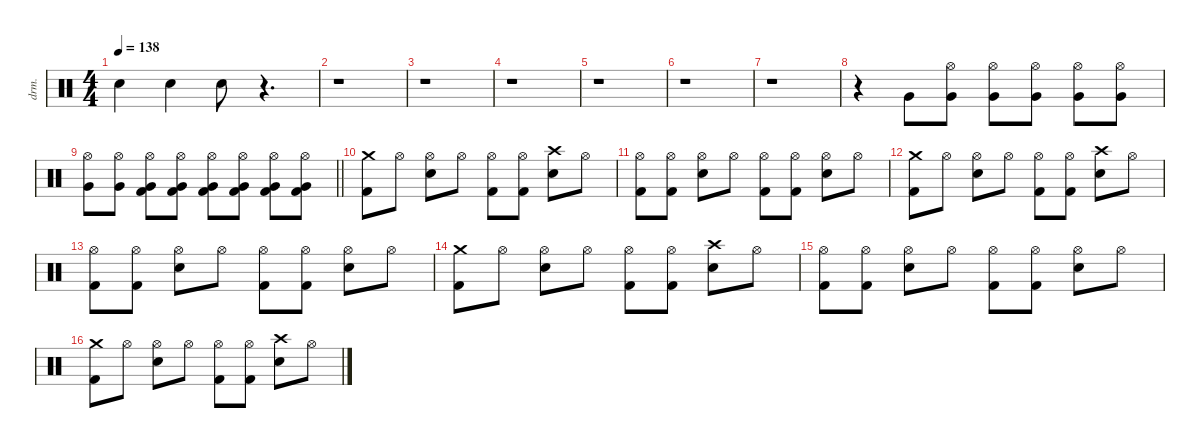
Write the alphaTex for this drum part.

\defaultSystemsLayout 4
\hideDynamics
\bracketExtendMode nobrackets
\otherSystemsTrackNameOrientation horizontal
\track ("Alex Van Halen " "drm.") {instrument percussion}
\staff {score}
\articulation defaults
\ts (4 4)
\tempo 138
\clef neutral
\ks c "Hand Clap (hit)".4{dy f beam Down} "Hand Clap (hit)".4{beam Down} "Hand Clap (hit)".8{beam Down}
r.4{d beam Down} |
r.1{beam Down} |
r.1{beam Down} |
r.1{beam Down} |
r.1{beam Down} |
r.1{beam Down} |
r.1{beam Down} |
r.4{beam Down} "Very Low Tom (hit)".8{beam Down} ("Hi-Hat (open)" "Very Low Tom (hit)").8{beam Down} ("Hi-Hat (open)" "Very Low Tom (hit)").8{beam Down} ("Hi-Hat (open)" "Very Low Tom (hit)").8{beam Down} ("Hi-Hat (open)" "Very Low Tom (hit)").8{beam Down} ("Very Low Tom (hit)" "Hi-Hat (open)").8{beam Down} |
\barLineRight lightlight
("Hi-Hat (open)" "Very Low Tom (hit)").8{beam Down} ("Hi-Hat (open)" "Very Low Tom (hit)").8{beam Down} ("Kick (hit) 2" "Hi-Hat (open)" "Very Low Tom (hit)").8{beam Down} ("Kick (hit) 2" "Hi-Hat (open)" "Very Low Tom (hit)").8{beam Down} ("Kick (hit) 2" "Hi-Hat (open)" "Very Low Tom (hit)").8{beam Down} ("Kick (hit) 2" "Hi-Hat (open)" "Very Low Tom (hit)").8{beam Down} ("Very Low Tom (hit)" "Hi-Hat (open)" "Kick (hit) 2").8{beam Down} ("Very Low Tom (hit)" "Hi-Hat (open)" "Kick (hit) 2").8{beam Down} |
("Crash medium (hit)" "Kick (hit) 2").8{beam Down} "Hi-Hat (open)".8{beam Down} ("Hi-Hat (open)" "Snare (hit) 2").8{beam Down} "Hi-Hat (open)".8{beam Down} ("Hi-Hat (open)" "Kick (hit) 2").8{beam Down} ("Hi-Hat (open)" "Kick (hit) 2").8{beam Down} ("Crash high (hit)" "Snare (hit) 2").8{beam Down} "Hi-Hat (open)".8{beam Down} |
("Hi-Hat (open)" "Kick (hit) 2").8{beam Down} ("Hi-Hat (open)" "Kick (hit) 2").8{beam Down} ("Hi-Hat (open)" "Snare (hit) 2").8{beam Down} "Hi-Hat (open)".8{beam Down} ("Hi-Hat (open)" "Kick (hit) 2").8{beam Down} ("Hi-Hat (open)" "Kick (hit) 2").8{beam Down} ("Hi-Hat (open)" "Snare (hit) 2").8{beam Down} "Hi-Hat (open)".8{beam Down} |
("Crash medium (hit)" "Kick (hit) 2").8{beam Down} "Hi-Hat (open)".8{beam Down} ("Hi-Hat (open)" "Snare (hit) 2").8{beam Down} "Hi-Hat (open)".8{beam Down} ("Hi-Hat (open)" "Kick (hit) 2").8{beam Down} ("Hi-Hat (open)" "Kick (hit) 2").8{beam Down} ("Crash high (hit)" "Snare (hit) 2").8{beam Down} "Hi-Hat (open)".8{beam Down} |
("Hi-Hat (open)" "Kick (hit) 2").8{beam Down} ("Hi-Hat (open)" "Kick (hit) 2").8{beam Down} ("Hi-Hat (open)" "Snare (hit) 2").8{beam Down} "Hi-Hat (open)".8{beam Down} ("Hi-Hat (open)" "Kick (hit) 2").8{beam Down} ("Hi-Hat (open)" "Kick (hit) 2").8{beam Down} ("Hi-Hat (open)" "Snare (hit) 2").8{beam Down} "Hi-Hat (open)".8{beam Down} |
("Crash medium (hit)" "Kick (hit) 2").8{beam Down} "Hi-Hat (open)".8{beam Down} ("Hi-Hat (open)" "Snare (hit) 2").8{beam Down} "Hi-Hat (open)".8{beam Down} ("Hi-Hat (open)" "Kick (hit) 2").8{beam Down} ("Hi-Hat (open)" "Kick (hit) 2").8{beam Down} ("Crash high (hit)" "Snare (hit) 2").8{beam Down} "Hi-Hat (open)".8{beam Down} |
("Hi-Hat (open)" "Kick (hit) 2").8{beam Down} ("Hi-Hat (open)" "Kick (hit) 2").8{beam Down} ("Hi-Hat (open)" "Snare (hit) 2").8{beam Down} "Hi-Hat (open)".8{beam Down} ("Hi-Hat (open)" "Kick (hit) 2").8{beam Down} ("Hi-Hat (open)" "Kick (hit) 2").8{beam Down} ("Hi-Hat (open)" "Snare (hit) 2").8{beam Down} "Hi-Hat (open)".8{beam Down} |
("Crash medium (hit)" "Kick (hit) 2").8{beam Down} "Hi-Hat (open)".8{beam Down} ("Hi-Hat (open)" "Snare (hit) 2").8{beam Down} "Hi-Hat (open)".8{beam Down} ("Hi-Hat (open)" "Kick (hit) 2").8{beam Down} ("Hi-Hat (open)" "Kick (hit) 2").8{beam Down} ("Crash high (hit)" "Snare (hit) 2").8{beam Down} "Hi-Hat (open)".8{beam Down}
